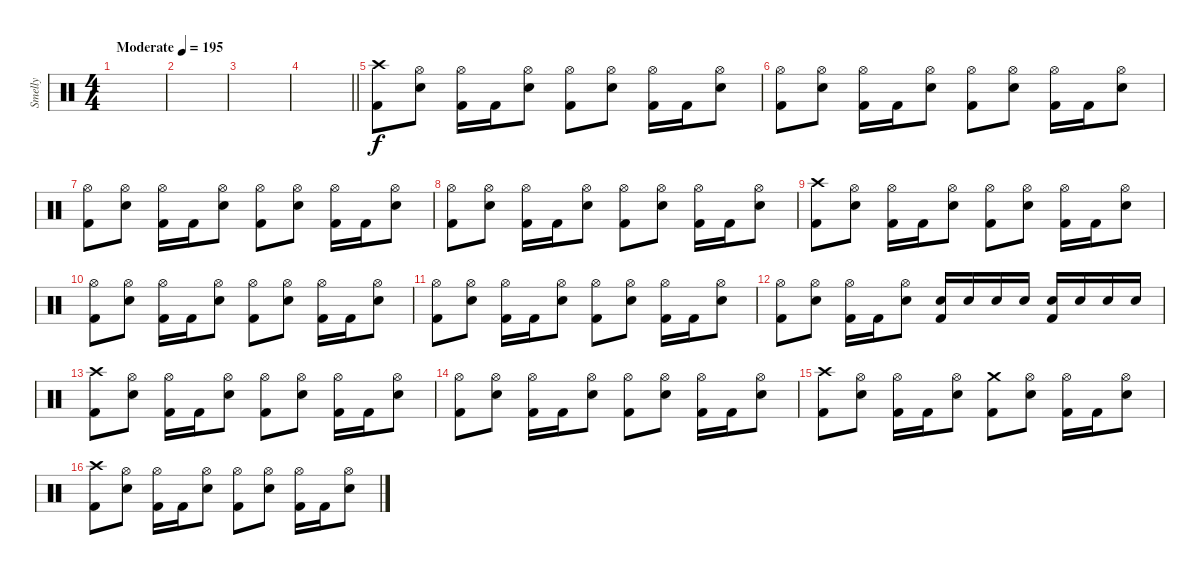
\track ("Smelly" "Smelly") {instrument percussion}
\staff {score}
\articulation defaults
\ts (4 4)
\tempo (195 "Moderate")
\clef neutral
\ks c
|
|
|
\barLineRight lightlight
|
\section ("" "")
("Crash high (hit)" "Kick (hit) 2").8 ("Hi-Hat (open)" "Electric Snare (hit)").8 ("Hi-Hat (open)" "Kick (hit) 2").16 "Kick (hit) 2".16 ("Hi-Hat (open)" "Electric Snare (hit)").8 ("Hi-Hat (open)" "Kick (hit) 2").8 ("Hi-Hat (open)" "Electric Snare (hit)").8 ("Hi-Hat (open)" "Kick (hit) 2").16 "Kick (hit) 2".16 ("Hi-Hat (open)" "Electric Snare (hit)").8 |
("Hi-Hat (open)" "Kick (hit) 2").8 ("Hi-Hat (open)" "Electric Snare (hit)").8 ("Hi-Hat (open)" "Kick (hit) 2").16 "Kick (hit) 2".16 ("Hi-Hat (open)" "Electric Snare (hit)").8 ("Hi-Hat (open)" "Kick (hit) 2").8 ("Hi-Hat (open)" "Electric Snare (hit)").8 ("Hi-Hat (open)" "Kick (hit) 2").16 "Kick (hit) 2".16 ("Hi-Hat (open)" "Electric Snare (hit)").8 |
("Hi-Hat (open)" "Kick (hit) 2").8 ("Hi-Hat (open)" "Electric Snare (hit)").8 ("Hi-Hat (open)" "Kick (hit) 2").16 "Kick (hit) 2".16 ("Hi-Hat (open)" "Electric Snare (hit)").8 ("Hi-Hat (open)" "Kick (hit) 2").8 ("Hi-Hat (open)" "Electric Snare (hit)").8 ("Hi-Hat (open)" "Kick (hit) 2").16 "Kick (hit) 2".16 ("Hi-Hat (open)" "Electric Snare (hit)").8 |
("Hi-Hat (open)" "Kick (hit) 2").8 ("Hi-Hat (open)" "Electric Snare (hit)").8 ("Hi-Hat (open)" "Kick (hit) 2").16 "Kick (hit) 2".16 ("Hi-Hat (open)" "Electric Snare (hit)").8 ("Hi-Hat (open)" "Kick (hit) 2").8 ("Hi-Hat (open)" "Electric Snare (hit)").8 ("Hi-Hat (open)" "Kick (hit) 2").16 "Kick (hit) 2".16 ("Hi-Hat (open)" "Electric Snare (hit)").8 |
("Crash high (hit)" "Kick (hit) 2").8 ("Hi-Hat (open)" "Electric Snare (hit)").8 ("Hi-Hat (open)" "Kick (hit) 2").16 "Kick (hit) 2".16 ("Hi-Hat (open)" "Electric Snare (hit)").8 ("Hi-Hat (open)" "Kick (hit) 2").8 ("Hi-Hat (open)" "Electric Snare (hit)").8 ("Hi-Hat (open)" "Kick (hit) 2").16 "Kick (hit) 2".16 ("Hi-Hat (open)" "Electric Snare (hit)").8 |
("Hi-Hat (open)" "Kick (hit) 2").8 ("Hi-Hat (open)" "Electric Snare (hit)").8 ("Hi-Hat (open)" "Kick (hit) 2").16 "Kick (hit) 2".16 ("Hi-Hat (open)" "Electric Snare (hit)").8 ("Hi-Hat (open)" "Kick (hit) 2").8 ("Hi-Hat (open)" "Electric Snare (hit)").8 ("Hi-Hat (open)" "Kick (hit) 2").16 "Kick (hit) 2".16 ("Hi-Hat (open)" "Electric Snare (hit)").8 |
("Hi-Hat (open)" "Kick (hit) 2").8 ("Hi-Hat (open)" "Electric Snare (hit)").8 ("Hi-Hat (open)" "Kick (hit) 2").16 "Kick (hit) 2".16 ("Hi-Hat (open)" "Electric Snare (hit)").8 ("Hi-Hat (open)" "Kick (hit) 2").8 ("Hi-Hat (open)" "Electric Snare (hit)").8 ("Hi-Hat (open)" "Kick (hit) 2").16 "Kick (hit) 2".16 ("Hi-Hat (open)" "Electric Snare (hit)").8 |
("Hi-Hat (open)" "Kick (hit) 2").8 ("Hi-Hat (open)" "Electric Snare (hit)").8 ("Hi-Hat (open)" "Kick (hit) 2").16 "Kick (hit) 2".16 ("Hi-Hat (open)" "Electric Snare (hit)").8 ("Electric Snare (hit)" "Kick (hit) 2").16 "Electric Snare (hit)".16 "Electric Snare (hit)".16 "Electric Snare (hit)".16 ("Electric Snare (hit)" "Kick (hit) 2").16 "Electric Snare (hit)".16 "Electric Snare (hit)".16 "Electric Snare (hit)".16 |
("Crash high (hit)" "Kick (hit) 2").8 ("Hi-Hat (open)" "Electric Snare (hit)").8 ("Hi-Hat (open)" "Kick (hit) 2").16 "Kick (hit) 2".16 ("Hi-Hat (open)" "Electric Snare (hit)").8 ("Hi-Hat (open)" "Kick (hit) 2").8 ("Hi-Hat (open)" "Electric Snare (hit)").8 ("Hi-Hat (open)" "Kick (hit) 2").16 "Kick (hit) 2".16 ("Hi-Hat (open)" "Electric Snare (hit)").8 |
("Hi-Hat (open)" "Kick (hit) 2").8 ("Hi-Hat (open)" "Electric Snare (hit)").8 ("Hi-Hat (open)" "Kick (hit) 2").16 "Kick (hit) 2".16 ("Hi-Hat (open)" "Electric Snare (hit)").8 ("Hi-Hat (open)" "Kick (hit) 2").8 ("Hi-Hat (open)" "Electric Snare (hit)").8 ("Hi-Hat (open)" "Kick (hit) 2").16 "Kick (hit) 2".16 ("Hi-Hat (open)" "Electric Snare (hit)").8 |
("Crash high (hit)" "Kick (hit) 2").8 ("Hi-Hat (open)" "Electric Snare (hit)").8 ("Hi-Hat (open)" "Kick (hit) 2").16 "Kick (hit) 2".16 ("Hi-Hat (open)" "Electric Snare (hit)").8 ("Crash medium (hit)" "Kick (hit) 2").8 ("Hi-Hat (open)" "Electric Snare (hit)").8 ("Hi-Hat (open)" "Kick (hit) 2").16 "Kick (hit) 2".16 ("Hi-Hat (open)" "Electric Snare (hit)").8 |
("Crash high (hit)" "Kick (hit) 2").8 ("Hi-Hat (open)" "Electric Snare (hit)").8 ("Hi-Hat (open)" "Kick (hit) 2").16 "Kick (hit) 2".16 ("Hi-Hat (open)" "Electric Snare (hit)").8 ("Hi-Hat (open)" "Kick (hit) 2").8 ("Hi-Hat (open)" "Electric Snare (hit)").8 ("Hi-Hat (open)" "Kick (hit) 2").16 "Kick (hit) 2".16 ("Hi-Hat (open)" "Electric Snare (hit)").8
